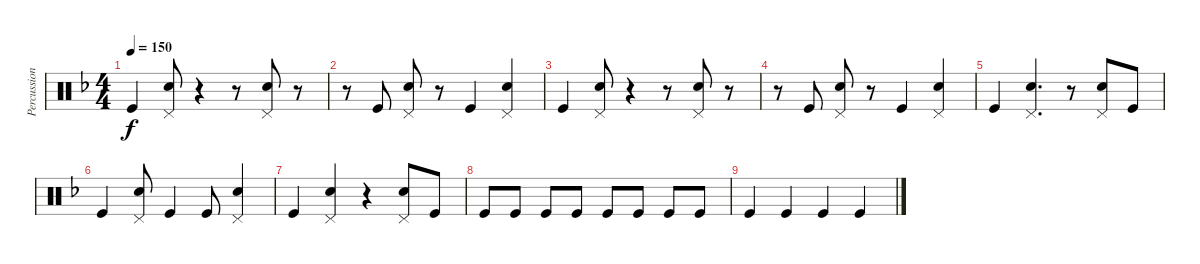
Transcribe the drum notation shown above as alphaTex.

\track ("Percussion" "Percussion") {instrument percussion}
\staff {score}
\articulation defaults
\ts (4 4)
\tempo 150
\clef neutral
\ks f "Kick (hit)".4{dy f}
("Snare (hit) 2" "Pedal Hi-Hat (hit)").8 r.4 r.8 ("Snare (hit) 2" "Pedal Hi-Hat (hit)").8 r.8 |
r.8 "Kick (hit)".8 ("Snare (hit) 2" "Pedal Hi-Hat (hit)").8 r.8 "Kick (hit)".4 ("Snare (hit) 2" "Pedal Hi-Hat (hit)").4 |
"Kick (hit)".4 ("Snare (hit) 2" "Pedal Hi-Hat (hit)").8 r.4 r.8 ("Snare (hit) 2" "Pedal Hi-Hat (hit)").8 r.8 |
r.8 "Kick (hit)".8 ("Snare (hit) 2" "Pedal Hi-Hat (hit)").8 r.8 "Kick (hit)".4 ("Snare (hit) 2" "Pedal Hi-Hat (hit)").4 |
"Kick (hit)".4 ("Snare (hit) 2" "Pedal Hi-Hat (hit)").4{d} r.8 ("Snare (hit) 2" "Pedal Hi-Hat (hit)").8 "Kick (hit)".8 |
"Kick (hit)".4 ("Snare (hit) 2" "Pedal Hi-Hat (hit)").8 "Kick (hit)".4 "Kick (hit)".8 ("Snare (hit) 2" "Pedal Hi-Hat (hit)").4 |
"Kick (hit)".4 ("Snare (hit) 2" "Pedal Hi-Hat (hit)").4 r.4 ("Snare (hit) 2" "Pedal Hi-Hat (hit)").8 "Kick (hit)".8 |
"Kick (hit)".8 "Kick (hit)".8 "Kick (hit)".8 "Kick (hit)".8 "Kick (hit)".8 "Kick (hit)".8 "Kick (hit)".8 "Kick (hit)".8 |
"Kick (hit)".4 "Kick (hit)".4 "Kick (hit)".4 "Kick (hit)".4
